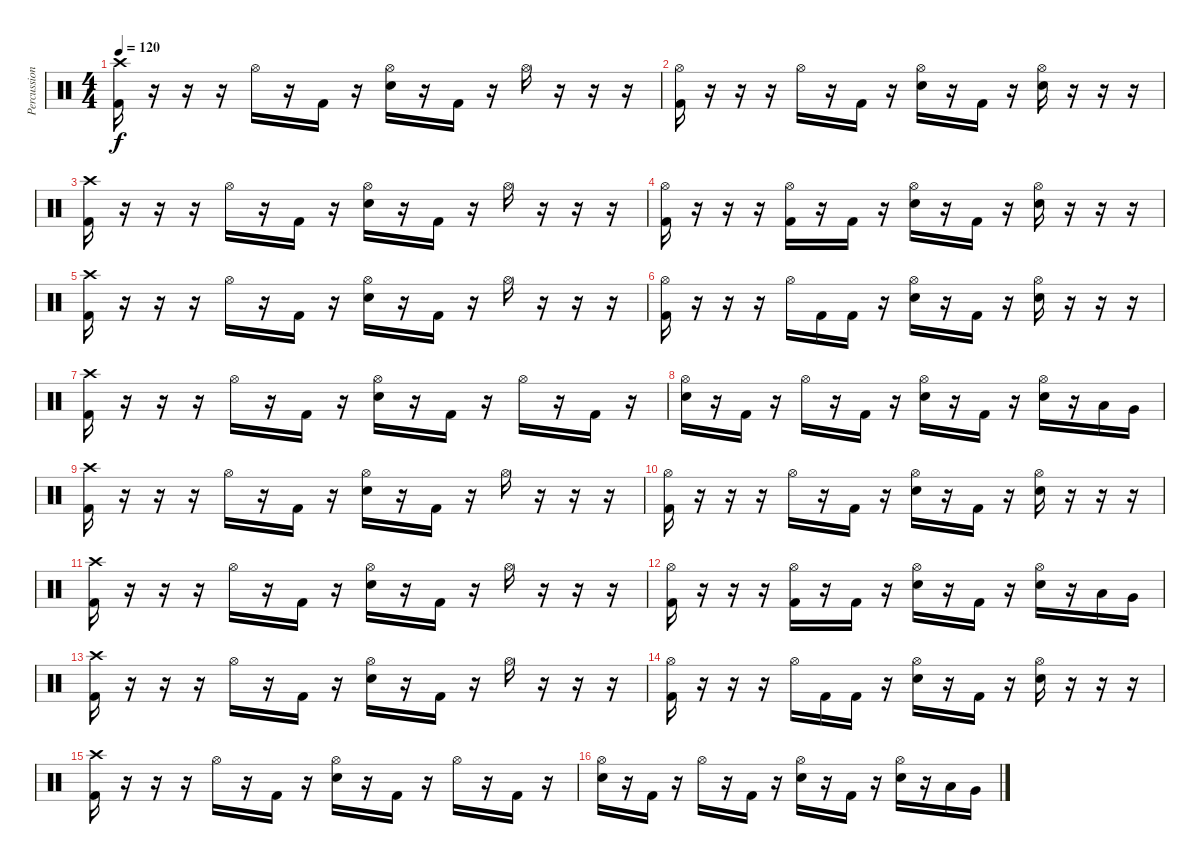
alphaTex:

\track ("Percussion" "Percussion") {instrument percussion}
\staff {score}
\articulation defaults
\ts (4 4)
\tempo 120
\clef neutral
\ks c
("Crash high (hit)" "Kick (hit) 2").16{dy f} r.16 r.16 r.16 "Hi-Hat (open)".16 r.16 "Kick (hit) 2".16 r.16 ("Hi-Hat (open)" "Electric Snare (hit)").16 r.16 "Kick (hit) 2".16 r.16 "Hi-Hat (open)".16 r.16 r.16 r.16 |
("Hi-Hat (open)" "Kick (hit) 2").16 r.16 r.16 r.16 "Hi-Hat (open)".16 r.16 "Kick (hit) 2".16 r.16 ("Hi-Hat (open)" "Electric Snare (hit)").16 r.16 "Kick (hit) 2".16 r.16 ("Hi-Hat (open)" "Electric Snare (hit)").16 r.16 r.16 r.16 |
("Crash high (hit)" "Kick (hit) 2").16 r.16 r.16 r.16 "Hi-Hat (open)".16 r.16 "Kick (hit) 2".16 r.16 ("Hi-Hat (open)" "Electric Snare (hit)").16 r.16 "Kick (hit) 2".16 r.16 "Hi-Hat (open)".16 r.16 r.16 r.16 |
("Hi-Hat (open)" "Kick (hit) 2").16 r.16 r.16 r.16 ("Hi-Hat (open)" "Kick (hit) 2").16 r.16 "Kick (hit) 2".16 r.16 ("Hi-Hat (open)" "Electric Snare (hit)").16 r.16 "Kick (hit) 2".16 r.16 ("Hi-Hat (open)" "Electric Snare (hit)").16 r.16 r.16 r.16 |
("Crash high (hit)" "Kick (hit) 2").16 r.16 r.16 r.16 "Hi-Hat (open)".16 r.16 "Kick (hit) 2".16 r.16 ("Hi-Hat (open)" "Electric Snare (hit)").16 r.16 "Kick (hit) 2".16 r.16 "Hi-Hat (open)".16 r.16 r.16 r.16 |
("Hi-Hat (open)" "Kick (hit) 2").16 r.16 r.16 r.16 "Hi-Hat (open)".16 "Kick (hit) 2".16 "Kick (hit) 2".16 r.16 ("Hi-Hat (open)" "Electric Snare (hit)").16 r.16 "Kick (hit) 2".16 r.16 ("Hi-Hat (open)" "Electric Snare (hit)").16 r.16 r.16 r.16 |
("Crash high (hit)" "Kick (hit) 2").16 r.16 r.16 r.16 "Hi-Hat (open)".16 r.16 "Kick (hit) 2".16 r.16 ("Hi-Hat (open)" "Electric Snare (hit)").16 r.16 "Kick (hit) 2".16 r.16 "Hi-Hat (open)".16 r.16 "Kick (hit) 2".16 r.16 |
("Hi-Hat (open)" "Electric Snare (hit)").16 r.16 "Kick (hit) 2".16 r.16 "Hi-Hat (open)".16 r.16 "Kick (hit) 2".16 r.16 ("Hi-Hat (open)" "Electric Snare (hit)").16 r.16 "Kick (hit) 2".16 r.16 ("Hi-Hat (open)" "Electric Snare (hit)").16 r.16 "Low Floor Tom (hit)".16 "Very Low Tom (hit)".16 |
("Crash high (hit)" "Kick (hit) 2").16 r.16 r.16 r.16 "Hi-Hat (open)".16 r.16 "Kick (hit) 2".16 r.16 ("Hi-Hat (open)" "Electric Snare (hit)").16 r.16 "Kick (hit) 2".16 r.16 "Hi-Hat (open)".16 r.16 r.16 r.16 |
("Hi-Hat (open)" "Kick (hit) 2").16 r.16 r.16 r.16 "Hi-Hat (open)".16 r.16 "Kick (hit) 2".16 r.16 ("Hi-Hat (open)" "Electric Snare (hit)").16 r.16 "Kick (hit) 2".16 r.16 ("Hi-Hat (open)" "Electric Snare (hit)").16 r.16 r.16 r.16 |
("Crash high (hit)" "Kick (hit) 2").16 r.16 r.16 r.16 "Hi-Hat (open)".16 r.16 "Kick (hit) 2".16 r.16 ("Hi-Hat (open)" "Electric Snare (hit)").16 r.16 "Kick (hit) 2".16 r.16 "Hi-Hat (open)".16 r.16 r.16 r.16 |
("Hi-Hat (open)" "Kick (hit) 2").16 r.16 r.16 r.16 ("Hi-Hat (open)" "Kick (hit) 2").16 r.16 "Kick (hit) 2".16 r.16 ("Hi-Hat (open)" "Electric Snare (hit)").16 r.16 "Kick (hit) 2".16 r.16 ("Hi-Hat (open)" "Electric Snare (hit)").16 r.16 "Low Floor Tom (hit)".16 "Very Low Tom (hit)".16 |
("Crash high (hit)" "Kick (hit) 2").16 r.16 r.16 r.16 "Hi-Hat (open)".16 r.16 "Kick (hit) 2".16 r.16 ("Hi-Hat (open)" "Electric Snare (hit)").16 r.16 "Kick (hit) 2".16 r.16 "Hi-Hat (open)".16 r.16 r.16 r.16 |
("Hi-Hat (open)" "Kick (hit) 2").16 r.16 r.16 r.16 "Hi-Hat (open)".16 "Kick (hit) 2".16 "Kick (hit) 2".16 r.16 ("Hi-Hat (open)" "Electric Snare (hit)").16 r.16 "Kick (hit) 2".16 r.16 ("Hi-Hat (open)" "Electric Snare (hit)").16 r.16 r.16 r.16 |
("Crash high (hit)" "Kick (hit) 2").16 r.16 r.16 r.16 "Hi-Hat (open)".16 r.16 "Kick (hit) 2".16 r.16 ("Hi-Hat (open)" "Electric Snare (hit)").16 r.16 "Kick (hit) 2".16 r.16 "Hi-Hat (open)".16 r.16 "Kick (hit) 2".16 r.16 |
("Hi-Hat (open)" "Electric Snare (hit)").16 r.16 "Kick (hit) 2".16 r.16 "Hi-Hat (open)".16 r.16 "Kick (hit) 2".16 r.16 ("Hi-Hat (open)" "Electric Snare (hit)").16 r.16 "Kick (hit) 2".16 r.16 ("Hi-Hat (open)" "Electric Snare (hit)").16 r.16 "Low Floor Tom (hit)".16 "Very Low Tom (hit)".16
